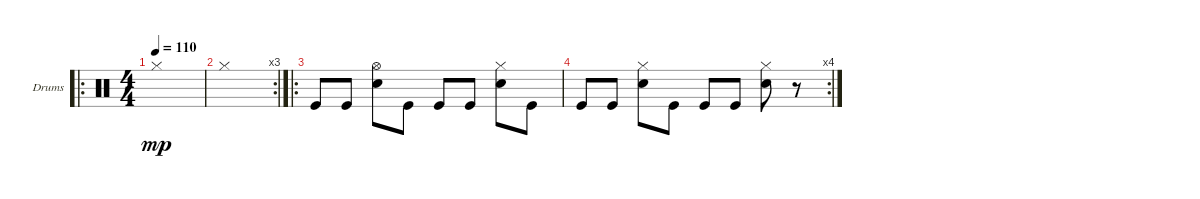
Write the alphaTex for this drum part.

\defaultSystemsLayout 4
\bracketExtendMode groupsimilarinstruments
\firstSystemTrackNameOrientation horizontal
\otherSystemsTrackNameOrientation horizontal
\chordDiagramsInScore
\track ("Drumkit" "Drums") {instrument percussion}
\staff {score}
\articulation defaults
\ro
\ts (4 4)
\tempo 110
\clef neutral
\ks c "Hi-Hat (closed)".1{dy mp}
|
\rc 3 "Hi-Hat (closed)".1
|
\ro "Kick (hit)".8 "Kick (hit)".8
("Hi-Hat (open)" "Snare (hit) 2").8 "Kick (hit)".8 "Kick (hit)".8 "Kick (hit)".8 ("Hi-Hat (closed)" "Snare (hit) 2").8 "Kick (hit)".8 |
\rc 4 "Kick (hit)".8 "Kick (hit)".8
("Hi-Hat (closed)" "Snare (hit) 2").8 "Kick (hit)".8 "Kick (hit)".8 "Kick (hit)".8 ("Hi-Hat (closed)" "Snare (hit) 2").8 r.8
